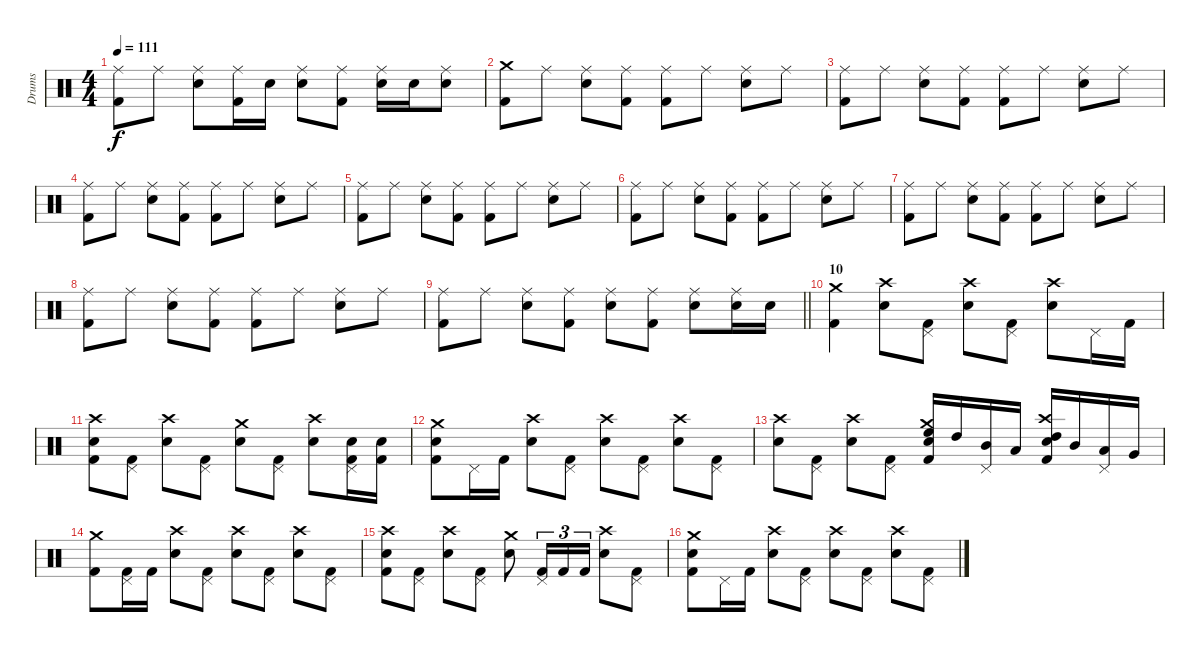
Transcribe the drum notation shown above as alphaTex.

\track ("Drums" "Drums") {instrument percussion}
\staff {score}
\articulation defaults
\ts (4 4)
\tempo 111
\clef neutral
\ks c
("Ride (middle)" "Kick (hit) 2").8{dy f} "Ride (middle)".8 ("Ride (middle)" "Snare (hit) 2").8 ("Ride (middle)" "Kick (hit) 2").16 "Snare (hit) 2".16 ("Ride (middle)" "Snare (hit) 2").8 ("Ride (middle)" "Kick (hit) 2").8 ("Ride (middle)" "Snare (hit) 2").16 "Snare (hit) 2".16 ("Ride (middle)" "Snare (hit) 2").8 |
("Crash medium (hit)" "Kick (hit) 2").8 "Ride (middle)".8 ("Ride (middle)" "Snare (hit) 2").8 ("Ride (middle)" "Kick (hit) 2").8 ("Ride (middle)" "Kick (hit) 2").8 "Ride (middle)".8 ("Ride (middle)" "Snare (hit) 2").8 "Ride (middle)".8 |
("Ride (middle)" "Kick (hit) 2").8 "Ride (middle)".8 ("Ride (middle)" "Snare (hit) 2").8 ("Ride (middle)" "Kick (hit) 2").8 ("Ride (middle)" "Kick (hit) 2").8 "Ride (middle)".8 ("Ride (middle)" "Snare (hit) 2").8 "Ride (middle)".8 |
("Ride (middle)" "Kick (hit) 2").8 "Ride (middle)".8 ("Ride (middle)" "Snare (hit) 2").8 ("Ride (middle)" "Kick (hit) 2").8 ("Ride (middle)" "Kick (hit) 2").8 "Ride (middle)".8 ("Ride (middle)" "Snare (hit) 2").8 "Ride (middle)".8 |
("Ride (middle)" "Kick (hit) 2").8 "Ride (middle)".8 ("Ride (middle)" "Snare (hit) 2").8 ("Ride (middle)" "Kick (hit) 2").8 ("Ride (middle)" "Kick (hit) 2").8 "Ride (middle)".8 ("Ride (middle)" "Snare (hit) 2").8 "Ride (middle)".8 |
("Ride (middle)" "Kick (hit) 2").8 "Ride (middle)".8 ("Ride (middle)" "Snare (hit) 2").8 ("Ride (middle)" "Kick (hit) 2").8 ("Ride (middle)" "Kick (hit) 2").8 "Ride (middle)".8 ("Ride (middle)" "Snare (hit) 2").8 "Ride (middle)".8 |
("Ride (middle)" "Kick (hit) 2").8 "Ride (middle)".8 ("Ride (middle)" "Snare (hit) 2").8 ("Ride (middle)" "Kick (hit) 2").8 ("Ride (middle)" "Kick (hit) 2").8 "Ride (middle)".8 ("Ride (middle)" "Snare (hit) 2").8 "Ride (middle)".8 |
("Ride (middle)" "Kick (hit) 2").8 "Ride (middle)".8 ("Ride (middle)" "Snare (hit) 2").8 ("Ride (middle)" "Kick (hit) 2").8 ("Ride (middle)" "Kick (hit) 2").8 "Ride (middle)".8 ("Ride (middle)" "Snare (hit) 2").8 "Ride (middle)".8 |
\barLineRight lightlight
("Ride (middle)" "Kick (hit) 2").8 "Ride (middle)".8 ("Ride (middle)" "Snare (hit) 2").8 ("Ride (middle)" "Kick (hit) 2").8 ("Ride (middle)" "Snare (hit) 2").8 ("Ride (middle)" "Kick (hit) 2").8 ("Ride (middle)" "Snare (hit) 2").8 ("Ride (middle)" "Snare (hit) 2").16 "Snare (hit) 2".16 |
\section ("" "10")
("Crash medium (hit)" "Kick (hit) 2").4 ("Crash high (hit)" "Snare (hit) 2").8 ("Pedal Hi-Hat (hit)" "Kick (hit) 2").8 ("Crash high (hit)" "Snare (hit) 2").8 ("Pedal Hi-Hat (hit)" "Kick (hit) 2").8 ("Crash high (hit)" "Snare (hit) 2").8 "Pedal Hi-Hat (hit)".16 "Kick (hit) 2".16 |
("Crash high (hit)" "Snare (hit) 2" "Kick (hit) 2").8 ("Pedal Hi-Hat (hit)" "Kick (hit) 2").8 ("Crash high (hit)" "Snare (hit) 2").8 ("Pedal Hi-Hat (hit)" "Kick (hit) 2").8 ("Crash medium (hit)" "Snare (hit) 2").8 ("Pedal Hi-Hat (hit)" "Kick (hit) 2").8 ("Crash high (hit)" "Snare (hit) 2").8 ("Pedal Hi-Hat (hit)" "Snare (hit) 2" "Kick (hit) 2").16 ("Snare (hit) 2" "Kick (hit) 2").16 |
("Crash medium (hit)" "Snare (hit) 2" "Kick (hit) 2").8 "Pedal Hi-Hat (hit)".16 "Kick (hit) 2".16 ("Crash high (hit)" "Snare (hit) 2").8 ("Pedal Hi-Hat (hit)" "Kick (hit) 2").8 ("Crash high (hit)" "Snare (hit) 2").8 ("Pedal Hi-Hat (hit)" "Kick (hit) 2").8 ("Crash high (hit)" "Snare (hit) 2").8 ("Pedal Hi-Hat (hit)" "Kick (hit) 2").8 |
("Crash high (hit)" "Snare (hit) 2").8 ("Pedal Hi-Hat (hit)" "Kick (hit) 2").8 ("Crash high (hit)" "Snare (hit) 2").8 ("Pedal Hi-Hat (hit)" "Kick (hit) 2").8 ("Crash medium (hit)" "High Floor Tom (hit)" "Snare (hit) 2" "Kick (hit) 2").16 "High Tom (hit)".16 ("Pedal Hi-Hat (hit)" "Mid Tom (hit)").16 "Low Tom (hit)".16 ("Crash high (hit)" "High Tom (hit)" "Snare (hit) 2" "Kick (hit) 2").16 "Mid Tom (hit)".16 ("Pedal Hi-Hat (hit)" "Low Tom (hit)").16 "Very Low Tom (hit)".16 |
("Crash medium (hit)" "Kick (hit) 2").8 ("Pedal Hi-Hat (hit)" "Kick (hit) 2").16 "Kick (hit) 2".16 ("Crash high (hit)" "Snare (hit) 2").8 ("Pedal Hi-Hat (hit)" "Kick (hit) 2").8 ("Crash high (hit)" "Snare (hit) 2").8 ("Pedal Hi-Hat (hit)" "Kick (hit) 2").8 ("Crash high (hit)" "Snare (hit) 2").8 ("Pedal Hi-Hat (hit)" "Kick (hit) 2").8 |
("Crash high (hit)" "Snare (hit) 2" "Kick (hit) 2").8 ("Pedal Hi-Hat (hit)" "Kick (hit) 2").8 ("Crash high (hit)" "Snare (hit) 2").8 ("Pedal Hi-Hat (hit)" "Kick (hit) 2").8 ("Crash medium (hit)" "Snare (hit) 2").8 ("Pedal Hi-Hat (hit)" "Kick (hit) 2").16{tu (3 2)} "Kick (hit) 2".16{tu (3 2)} "Kick (hit) 2".16{tu (3 2)} ("Crash high (hit)" "Snare (hit) 2").8 ("Pedal Hi-Hat (hit)" "Kick (hit) 2").8 |
("Crash medium (hit)" "Snare (hit) 2" "Kick (hit) 2").8 "Pedal Hi-Hat (hit)".16 "Kick (hit) 2".16 ("Crash high (hit)" "Snare (hit) 2").8 ("Pedal Hi-Hat (hit)" "Kick (hit) 2").8 ("Crash high (hit)" "Snare (hit) 2").8 ("Pedal Hi-Hat (hit)" "Kick (hit) 2").8 ("Crash high (hit)" "Snare (hit) 2").8 ("Pedal Hi-Hat (hit)" "Kick (hit) 2").8
